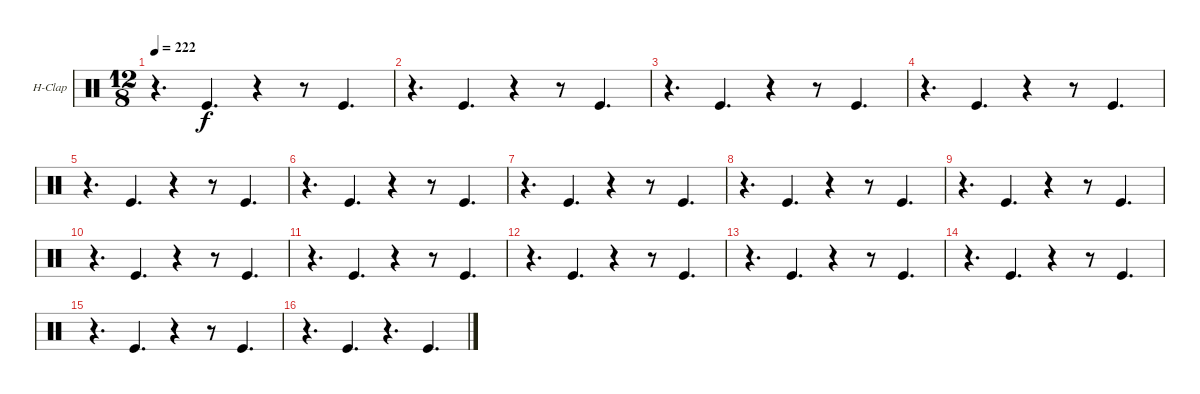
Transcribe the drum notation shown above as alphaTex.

\bracketExtendMode nobrackets
\firstSystemTrackNameOrientation horizontal
\otherSystemsTrackNameOrientation horizontal
\track ("Hand Clap" "H-Clap") {instrument percussion}
\staff {score}
\articulation defaults
\ts (12 8)
\tempo 222
\clef neutral
\ks c
r.4{d dy fff} "Kick (hit)".4{d dy f} r.4 r.8 "Kick (hit)".4{d} |
r.4{d} "Kick (hit)".4{d} r.4 r.8 "Kick (hit)".4{d} |
r.4{d} "Kick (hit)".4{d} r.4 r.8 "Kick (hit)".4{d} |
r.4{d} "Kick (hit)".4{d} r.4 r.8 "Kick (hit)".4{d} |
r.4{d} "Kick (hit)".4{d} r.4 r.8 "Kick (hit)".4{d} |
r.4{d} "Kick (hit)".4{d} r.4 r.8 "Kick (hit)".4{d} |
r.4{d} "Kick (hit)".4{d} r.4 r.8 "Kick (hit)".4{d} |
r.4{d} "Kick (hit)".4{d} r.4 r.8 "Kick (hit)".4{d} |
r.4{d} "Kick (hit)".4{d} r.4 r.8 "Kick (hit)".4{d} |
r.4{d} "Kick (hit)".4{d} r.4 r.8 "Kick (hit)".4{d} |
r.4{d} "Kick (hit)".4{d} r.4 r.8 "Kick (hit)".4{d} |
r.4{d} "Kick (hit)".4{d} r.4 r.8 "Kick (hit)".4{d} |
r.4{d} "Kick (hit)".4{d} r.4 r.8 "Kick (hit)".4{d} |
r.4{d} "Kick (hit)".4{d} r.4 r.8 "Kick (hit)".4{d} |
r.4{d} "Kick (hit)".4{d} r.4 r.8 "Kick (hit)".4{d} |
r.4{d} "Kick (hit)".4{d} r.4{d} "Kick (hit)".4{d}
